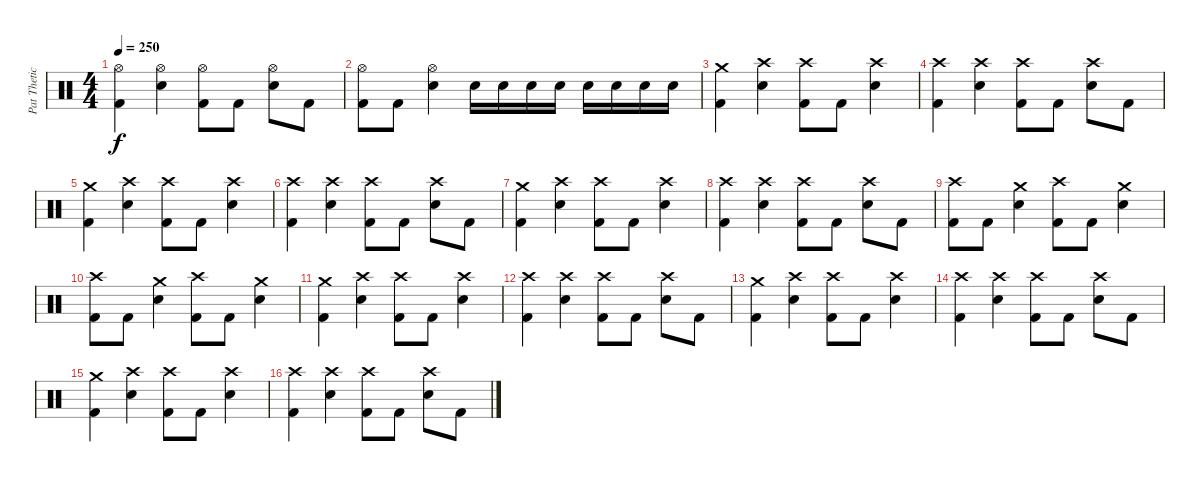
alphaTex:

\track ("Pat Thetic" "Pat Thetic") {instrument percussion}
\staff {score}
\articulation defaults
\ts (4 4)
\tempo 250
\clef neutral
\ks c
("Hi-Hat (open)" "Kick (hit) 2").4{dy f} ("Hi-Hat (open)" "Snare (hit) 2").4 ("Hi-Hat (open)" "Kick (hit) 2").8 "Kick (hit) 2".8 ("Hi-Hat (open)" "Snare (hit) 2").8 "Kick (hit) 2".8 |
("Hi-Hat (open)" "Kick (hit) 2").8 "Kick (hit) 2".8 ("Hi-Hat (open)" "Snare (hit) 2").4 "Snare (hit) 2".16 "Snare (hit) 2".16 "Snare (hit) 2".16 "Snare (hit) 2".16 "Snare (hit) 2".16 "Snare (hit) 2".16 "Snare (hit) 2".16 "Snare (hit) 2".16 |
("Crash medium (hit)" "Kick (hit) 2").4 ("Crash high (hit)" "Snare (hit) 2").4 ("Crash high (hit)" "Kick (hit) 2").8 "Kick (hit) 2".8 ("Crash high (hit)" "Snare (hit) 2").4 |
("Crash high (hit)" "Kick (hit) 2").4 ("Crash high (hit)" "Snare (hit) 2").4 ("Crash high (hit)" "Kick (hit) 2").8 "Kick (hit) 2".8 ("Crash high (hit)" "Snare (hit) 2").8 "Kick (hit) 2".8 |
("Crash medium (hit)" "Kick (hit) 2").4 ("Crash high (hit)" "Snare (hit) 2").4 ("Crash high (hit)" "Kick (hit) 2").8 "Kick (hit) 2".8 ("Crash high (hit)" "Snare (hit) 2").4 |
("Crash high (hit)" "Kick (hit) 2").4 ("Crash high (hit)" "Snare (hit) 2").4 ("Crash high (hit)" "Kick (hit) 2").8 "Kick (hit) 2".8 ("Crash high (hit)" "Snare (hit) 2").8 "Kick (hit) 2".8 |
("Crash medium (hit)" "Kick (hit) 2").4 ("Crash high (hit)" "Snare (hit) 2").4 ("Crash high (hit)" "Kick (hit) 2").8 "Kick (hit) 2".8 ("Crash high (hit)" "Snare (hit) 2").4 |
("Crash high (hit)" "Kick (hit) 2").4 ("Crash high (hit)" "Snare (hit) 2").4 ("Crash high (hit)" "Kick (hit) 2").8 "Kick (hit) 2".8 ("Crash high (hit)" "Snare (hit) 2").8 "Kick (hit) 2".8 |
("Crash high (hit)" "Kick (hit) 2").8 "Kick (hit) 2".8 ("Crash medium (hit)" "Snare (hit) 2").4 ("Crash high (hit)" "Kick (hit) 2").8 "Kick (hit) 2".8 ("Crash medium (hit)" "Snare (hit) 2").4 |
("Crash high (hit)" "Kick (hit) 2").8 "Kick (hit) 2".8 ("Crash medium (hit)" "Snare (hit) 2").4 ("Crash high (hit)" "Kick (hit) 2").8 "Kick (hit) 2".8 ("Crash medium (hit)" "Snare (hit) 2").4 |
("Crash medium (hit)" "Kick (hit) 2").4 ("Crash high (hit)" "Snare (hit) 2").4 ("Crash high (hit)" "Kick (hit) 2").8 "Kick (hit) 2".8 ("Crash high (hit)" "Snare (hit) 2").4 |
("Crash high (hit)" "Kick (hit) 2").4 ("Crash high (hit)" "Snare (hit) 2").4 ("Crash high (hit)" "Kick (hit) 2").8 "Kick (hit) 2".8 ("Crash high (hit)" "Snare (hit) 2").8 "Kick (hit) 2".8 |
("Crash medium (hit)" "Kick (hit) 2").4 ("Crash high (hit)" "Snare (hit) 2").4 ("Crash high (hit)" "Kick (hit) 2").8 "Kick (hit) 2".8 ("Crash high (hit)" "Snare (hit) 2").4 |
("Crash high (hit)" "Kick (hit) 2").4 ("Crash high (hit)" "Snare (hit) 2").4 ("Crash high (hit)" "Kick (hit) 2").8 "Kick (hit) 2".8 ("Crash high (hit)" "Snare (hit) 2").8 "Kick (hit) 2".8 |
("Crash medium (hit)" "Kick (hit) 2").4 ("Crash high (hit)" "Snare (hit) 2").4 ("Crash high (hit)" "Kick (hit) 2").8 "Kick (hit) 2".8 ("Crash high (hit)" "Snare (hit) 2").4 |
("Crash high (hit)" "Kick (hit) 2").4 ("Crash high (hit)" "Snare (hit) 2").4 ("Crash high (hit)" "Kick (hit) 2").8 "Kick (hit) 2".8 ("Crash high (hit)" "Snare (hit) 2").8 "Kick (hit) 2".8
